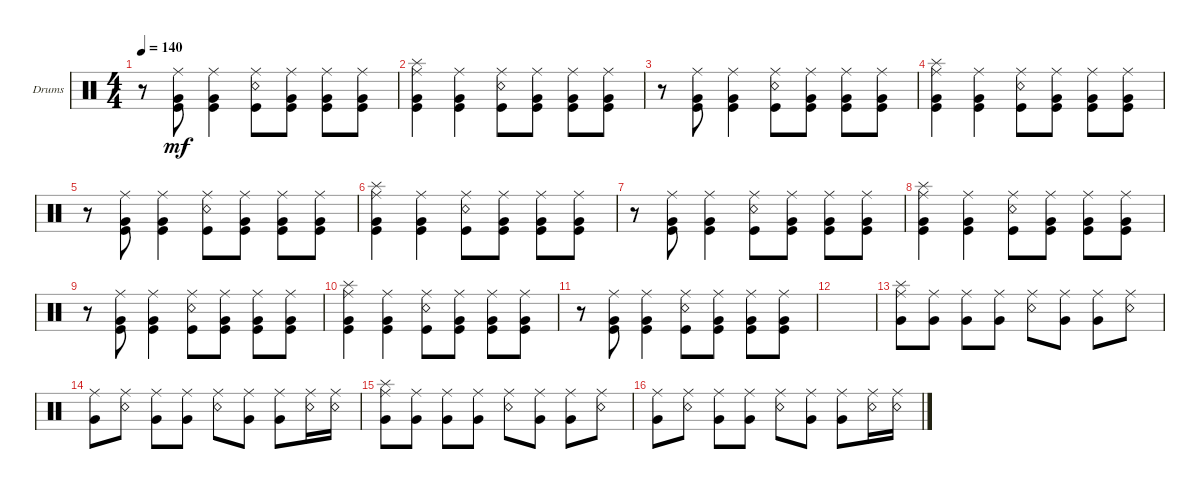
\defaultSystemsLayout 4
\bracketExtendMode groupsimilarinstruments
\firstSystemTrackNameOrientation horizontal
\otherSystemsTrackNameOrientation horizontal
\track ("Drumkit" "Drums") {instrument percussion}
\staff {score}
\articulation defaults
\ts (4 4)
\tempo 140
\clef neutral
\ks c
r.8{dy mf} ("Very Low Tom (hit)" "Kick (hit)" "Ride (middle)").8 ("Very Low Tom (hit)" "Kick (hit)" "Ride (middle)").4 ("Snare (rim shot)" "Kick (hit)" "Ride (middle)").8 ("Very Low Tom (hit)" "Kick (hit)" "Ride (middle)").8 ("Very Low Tom (hit)" "Kick (hit)" "Ride (middle)").8 ("Very Low Tom (hit)" "Kick (hit)" "Ride (middle)").8 |
("Splash (hit)" "Very Low Tom (hit)" "Ride (middle)" "Kick (hit)").4 ("Very Low Tom (hit)" "Ride (middle)" "Kick (hit)").4 ("Snare (rim shot)" "Ride (middle)" "Kick (hit)").8 ("Very Low Tom (hit)" "Ride (middle)" "Kick (hit)").8 ("Very Low Tom (hit)" "Ride (middle)" "Kick (hit)").8 ("Very Low Tom (hit)" "Ride (middle)" "Kick (hit)").8 |
r.8 ("Very Low Tom (hit)" "Kick (hit)" "Ride (middle)").8 ("Very Low Tom (hit)" "Kick (hit)" "Ride (middle)").4 ("Snare (rim shot)" "Kick (hit)" "Ride (middle)").8 ("Very Low Tom (hit)" "Kick (hit)" "Ride (middle)").8 ("Very Low Tom (hit)" "Kick (hit)" "Ride (middle)").8 ("Very Low Tom (hit)" "Kick (hit)" "Ride (middle)").8 |
("Splash (hit)" "Very Low Tom (hit)" "Ride (middle)" "Kick (hit)").4 ("Very Low Tom (hit)" "Ride (middle)" "Kick (hit)").4 ("Snare (rim shot)" "Ride (middle)" "Kick (hit)").8 ("Very Low Tom (hit)" "Ride (middle)" "Kick (hit)").8 ("Very Low Tom (hit)" "Ride (middle)" "Kick (hit)").8 ("Very Low Tom (hit)" "Ride (middle)" "Kick (hit)").8 |
r.8 ("Very Low Tom (hit)" "Kick (hit)" "Ride (middle)").8 ("Very Low Tom (hit)" "Kick (hit)" "Ride (middle)").4 ("Snare (rim shot)" "Kick (hit)" "Ride (middle)").8 ("Very Low Tom (hit)" "Kick (hit)" "Ride (middle)").8 ("Very Low Tom (hit)" "Kick (hit)" "Ride (middle)").8 ("Very Low Tom (hit)" "Kick (hit)" "Ride (middle)").8 |
("Splash (hit)" "Very Low Tom (hit)" "Ride (middle)" "Kick (hit)").4 ("Very Low Tom (hit)" "Ride (middle)" "Kick (hit)").4 ("Snare (rim shot)" "Ride (middle)" "Kick (hit)").8 ("Very Low Tom (hit)" "Ride (middle)" "Kick (hit)").8 ("Very Low Tom (hit)" "Ride (middle)" "Kick (hit)").8 ("Very Low Tom (hit)" "Ride (middle)" "Kick (hit)").8 |
r.8 ("Very Low Tom (hit)" "Kick (hit)" "Ride (middle)").8 ("Very Low Tom (hit)" "Kick (hit)" "Ride (middle)").4 ("Snare (rim shot)" "Kick (hit)" "Ride (middle)").8 ("Very Low Tom (hit)" "Kick (hit)" "Ride (middle)").8 ("Very Low Tom (hit)" "Kick (hit)" "Ride (middle)").8 ("Very Low Tom (hit)" "Kick (hit)" "Ride (middle)").8 |
("Splash (hit)" "Very Low Tom (hit)" "Ride (middle)" "Kick (hit)").4 ("Very Low Tom (hit)" "Ride (middle)" "Kick (hit)").4 ("Snare (rim shot)" "Ride (middle)" "Kick (hit)").8 ("Very Low Tom (hit)" "Ride (middle)" "Kick (hit)").8 ("Very Low Tom (hit)" "Ride (middle)" "Kick (hit)").8 ("Very Low Tom (hit)" "Ride (middle)" "Kick (hit)").8 |
r.8 ("Very Low Tom (hit)" "Kick (hit)" "Ride (middle)").8 ("Very Low Tom (hit)" "Kick (hit)" "Ride (middle)").4 ("Snare (rim shot)" "Kick (hit)" "Ride (middle)").8 ("Very Low Tom (hit)" "Kick (hit)" "Ride (middle)").8 ("Very Low Tom (hit)" "Kick (hit)" "Ride (middle)").8 ("Very Low Tom (hit)" "Kick (hit)" "Ride (middle)").8 |
("Splash (hit)" "Very Low Tom (hit)" "Ride (middle)" "Kick (hit)").4 ("Very Low Tom (hit)" "Ride (middle)" "Kick (hit)").4 ("Snare (rim shot)" "Ride (middle)" "Kick (hit)").8 ("Very Low Tom (hit)" "Ride (middle)" "Kick (hit)").8 ("Very Low Tom (hit)" "Ride (middle)" "Kick (hit)").8 ("Very Low Tom (hit)" "Ride (middle)" "Kick (hit)").8 |
r.8 ("Very Low Tom (hit)" "Kick (hit)" "Ride (middle)").8 ("Very Low Tom (hit)" "Kick (hit)" "Ride (middle)").4 ("Snare (rim shot)" "Kick (hit)" "Ride (middle)").8 ("Very Low Tom (hit)" "Kick (hit)" "Ride (middle)").8 ("Very Low Tom (hit)" "Kick (hit)" "Ride (middle)").8 ("Very Low Tom (hit)" "Kick (hit)" "Ride (middle)").8 |
|
("Very Low Tom (hit)" "Ride (middle)" "Splash (hit)").8 ("Very Low Tom (hit)" "Ride (middle)").8 ("Very Low Tom (hit)" "Ride (middle)").8 ("Very Low Tom (hit)" "Ride (middle)").8 ("Snare (rim shot)" "Ride (middle)").8 ("Very Low Tom (hit)" "Ride (middle)").8 ("Very Low Tom (hit)" "Ride (middle)").8 ("Snare (rim shot)" "Ride (middle)").8 |
("Very Low Tom (hit)" "Ride (middle)").8 ("Snare (rim shot)" "Ride (middle)").8 ("Very Low Tom (hit)" "Ride (middle)").8 ("Very Low Tom (hit)" "Ride (middle)").8 ("Snare (rim shot)" "Ride (middle)").8 ("Very Low Tom (hit)" "Ride (middle)").8 ("Very Low Tom (hit)" "Ride (middle)").8 ("Snare (rim shot)" "Ride (middle)").16 ("Snare (rim shot)" "Ride (middle)").16 |
("Very Low Tom (hit)" "Ride (middle)" "Splash (hit)").8 ("Very Low Tom (hit)" "Ride (middle)").8 ("Very Low Tom (hit)" "Ride (middle)").8 ("Very Low Tom (hit)" "Ride (middle)").8 ("Snare (rim shot)" "Ride (middle)").8 ("Very Low Tom (hit)" "Ride (middle)").8 ("Very Low Tom (hit)" "Ride (middle)").8 ("Snare (rim shot)" "Ride (middle)").8 |
("Very Low Tom (hit)" "Ride (middle)").8 ("Snare (rim shot)" "Ride (middle)").8 ("Very Low Tom (hit)" "Ride (middle)").8 ("Very Low Tom (hit)" "Ride (middle)").8 ("Snare (rim shot)" "Ride (middle)").8 ("Very Low Tom (hit)" "Ride (middle)").8 ("Very Low Tom (hit)" "Ride (middle)").8 ("Snare (rim shot)" "Ride (middle)").16 ("Snare (rim shot)" "Ride (middle)").16
